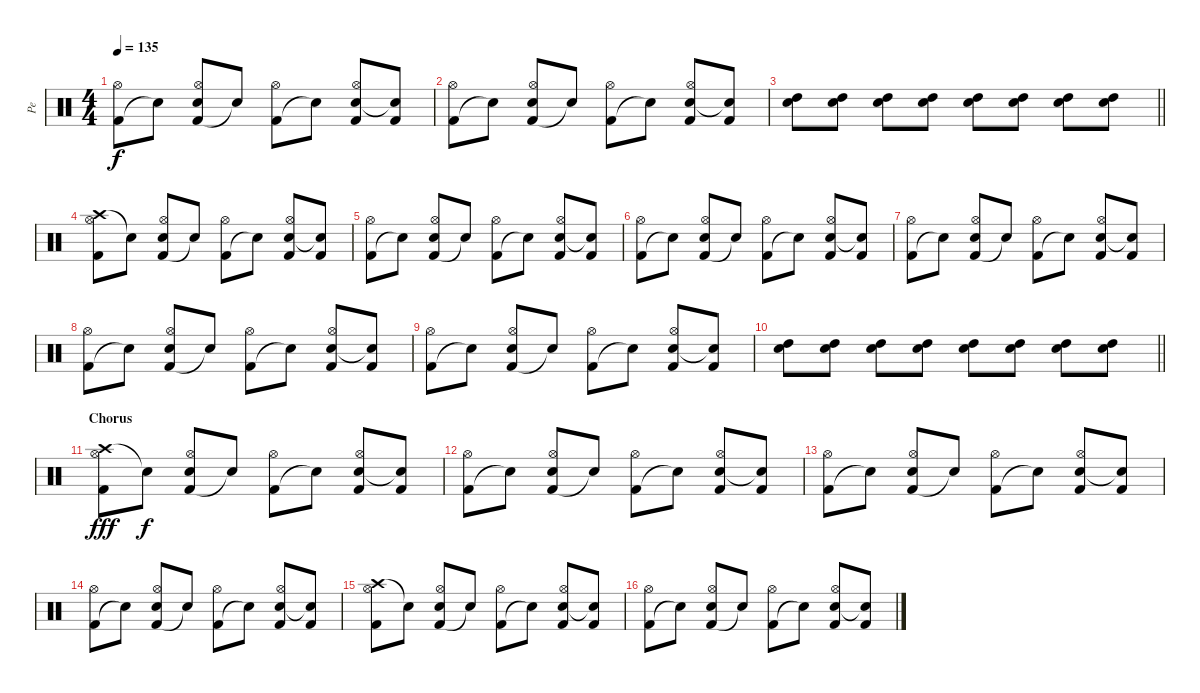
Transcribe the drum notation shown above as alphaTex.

\track ("Pe" "Pe") {instrument percussion}
\staff {score}
\articulation defaults
\ts (4 4)
\tempo 135
\clef neutral
\ks c
("Kick (hit) 2" "Hi-Hat (open)").8{dy f} "Snare (hit)"{t}.8 ("Kick (hit) 2" "Electric Snare (hit)" "Hi-Hat (open)").8 "Snare (hit)"{t}.8 ("Kick (hit) 2" "Hi-Hat (open)").8 "Snare (hit)"{t}.8 ("Kick (hit) 2" "Electric Snare (hit)" "Hi-Hat (open)").8 ("Kick (hit) 2" "Snare (hit)"{t}).8 |
("Kick (hit) 2" "Hi-Hat (open)").8 "Snare (hit)"{t}.8 ("Kick (hit) 2" "Electric Snare (hit)" "Hi-Hat (open)").8 "Snare (hit)"{t}.8 ("Kick (hit) 2" "Hi-Hat (open)").8 "Snare (hit)"{t}.8 ("Kick (hit) 2" "Electric Snare (hit)" "Hi-Hat (open)").8 ("Kick (hit) 2" "Snare (hit)"{t}).8 |
\barLineRight lightlight
("Electric Snare (hit)" "High Tom (hit)").8{volume 5} ("Electric Snare (hit)" "High Tom (hit)").8 ("Electric Snare (hit)" "High Tom (hit)").8{volume 8} ("Electric Snare (hit)" "High Tom (hit)").8 ("Electric Snare (hit)" "High Tom (hit)").8{volume 11} ("Electric Snare (hit)" "High Tom (hit)").8 ("Electric Snare (hit)" "High Tom (hit)").8{volume 13} ("Electric Snare (hit)" "High Tom (hit)").8 |
("Crash high (hit)" "Kick (hit) 2" "Hi-Hat (open)").8 "Snare (hit)"{t}.8 ("Kick (hit) 2" "Electric Snare (hit)" "Hi-Hat (open)").8 "Snare (hit)"{t}.8 ("Kick (hit) 2" "Hi-Hat (open)").8 "Snare (hit)"{t}.8 ("Kick (hit) 2" "Electric Snare (hit)" "Hi-Hat (open)").8 ("Kick (hit) 2" "Snare (hit)"{t}).8 |
("Kick (hit) 2" "Hi-Hat (open)").8 "Snare (hit)"{t}.8 ("Kick (hit) 2" "Electric Snare (hit)" "Hi-Hat (open)").8 "Snare (hit)"{t}.8 ("Kick (hit) 2" "Hi-Hat (open)").8 "Snare (hit)"{t}.8 ("Kick (hit) 2" "Electric Snare (hit)" "Hi-Hat (open)").8 ("Kick (hit) 2" "Snare (hit)"{t}).8 |
("Kick (hit) 2" "Hi-Hat (open)").8 "Snare (hit)"{t}.8 ("Kick (hit) 2" "Electric Snare (hit)" "Hi-Hat (open)").8 "Snare (hit)"{t}.8 ("Kick (hit) 2" "Hi-Hat (open)").8 "Snare (hit)"{t}.8 ("Kick (hit) 2" "Electric Snare (hit)" "Hi-Hat (open)").8 ("Kick (hit) 2" "Snare (hit)"{t}).8 |
("Kick (hit) 2" "Hi-Hat (open)").8 "Snare (hit)"{t}.8 ("Kick (hit) 2" "Electric Snare (hit)" "Hi-Hat (open)").8 "Snare (hit)"{t}.8 ("Kick (hit) 2" "Hi-Hat (open)").8 "Snare (hit)"{t}.8 ("Kick (hit) 2" "Electric Snare (hit)" "Hi-Hat (open)").8 ("Kick (hit) 2" "Snare (hit)"{t}).8 |
("Kick (hit) 2" "Hi-Hat (open)").8 "Snare (hit)"{t}.8 ("Kick (hit) 2" "Electric Snare (hit)" "Hi-Hat (open)").8 "Snare (hit)"{t}.8 ("Kick (hit) 2" "Hi-Hat (open)").8 "Snare (hit)"{t}.8 ("Kick (hit) 2" "Electric Snare (hit)" "Hi-Hat (open)").8 ("Kick (hit) 2" "Snare (hit)"{t}).8 |
("Kick (hit) 2" "Hi-Hat (open)").8 "Snare (hit)"{t}.8 ("Kick (hit) 2" "Electric Snare (hit)" "Hi-Hat (open)").8 "Snare (hit)"{t}.8 ("Kick (hit) 2" "Hi-Hat (open)").8 "Snare (hit)"{t}.8 ("Kick (hit) 2" "Electric Snare (hit)" "Hi-Hat (open)").8 ("Kick (hit) 2" "Snare (hit)"{t}).8 |
\barLineRight lightlight
("Electric Snare (hit)" "High Tom (hit)").8{volume 5} ("Electric Snare (hit)" "High Tom (hit)").8 ("Electric Snare (hit)" "High Tom (hit)").8{volume 8} ("Electric Snare (hit)" "High Tom (hit)").8 ("Electric Snare (hit)" "High Tom (hit)").8{volume 11} ("Electric Snare (hit)" "High Tom (hit)").8 ("Electric Snare (hit)" "High Tom (hit)").8{volume 13} ("Electric Snare (hit)" "High Tom (hit)").8 |
\section ("" "Chorus")
("Crash high (hit)" "Kick (hit) 2" "Hi-Hat (open)").8{dy fff} "Snare (hit)"{t}.8{dy f} ("Kick (hit) 2" "Electric Snare (hit)" "Hi-Hat (open)").8 "Snare (hit)"{t}.8 ("Kick (hit) 2" "Hi-Hat (open)").8 "Snare (hit)"{t}.8 ("Kick (hit) 2" "Electric Snare (hit)" "Hi-Hat (open)").8 ("Kick (hit) 2" "Snare (hit)"{t}).8 |
("Kick (hit) 2" "Hi-Hat (open)").8 "Snare (hit)"{t}.8 ("Kick (hit) 2" "Electric Snare (hit)" "Hi-Hat (open)").8 "Snare (hit)"{t}.8 ("Kick (hit) 2" "Hi-Hat (open)").8 "Snare (hit)"{t}.8 ("Kick (hit) 2" "Electric Snare (hit)" "Hi-Hat (open)").8 ("Kick (hit) 2" "Snare (hit)"{t}).8 |
("Kick (hit) 2" "Hi-Hat (open)").8 "Snare (hit)"{t}.8 ("Kick (hit) 2" "Electric Snare (hit)" "Hi-Hat (open)").8 "Snare (hit)"{t}.8 ("Kick (hit) 2" "Hi-Hat (open)").8 "Snare (hit)"{t}.8 ("Kick (hit) 2" "Electric Snare (hit)" "Hi-Hat (open)").8 ("Kick (hit) 2" "Snare (hit)"{t}).8 |
("Kick (hit) 2" "Hi-Hat (open)").8 "Snare (hit)"{t}.8 ("Kick (hit) 2" "Electric Snare (hit)" "Hi-Hat (open)").8 "Snare (hit)"{t}.8 ("Kick (hit) 2" "Hi-Hat (open)").8 "Snare (hit)"{t}.8 ("Kick (hit) 2" "Electric Snare (hit)" "Hi-Hat (open)").8 ("Kick (hit) 2" "Snare (hit)"{t}).8 |
("Crash high (hit)" "Kick (hit) 2" "Hi-Hat (open)").8 "Snare (hit)"{t}.8 ("Kick (hit) 2" "Electric Snare (hit)" "Hi-Hat (open)").8 "Snare (hit)"{t}.8 ("Kick (hit) 2" "Hi-Hat (open)").8 "Snare (hit)"{t}.8 ("Kick (hit) 2" "Electric Snare (hit)" "Hi-Hat (open)").8 ("Kick (hit) 2" "Snare (hit)"{t}).8 |
("Kick (hit) 2" "Hi-Hat (open)").8 "Snare (hit)"{t}.8 ("Kick (hit) 2" "Electric Snare (hit)" "Hi-Hat (open)").8 "Snare (hit)"{t}.8 ("Kick (hit) 2" "Hi-Hat (open)").8 "Snare (hit)"{t}.8 ("Kick (hit) 2" "Electric Snare (hit)" "Hi-Hat (open)").8 ("Kick (hit) 2" "Snare (hit)"{t}).8
